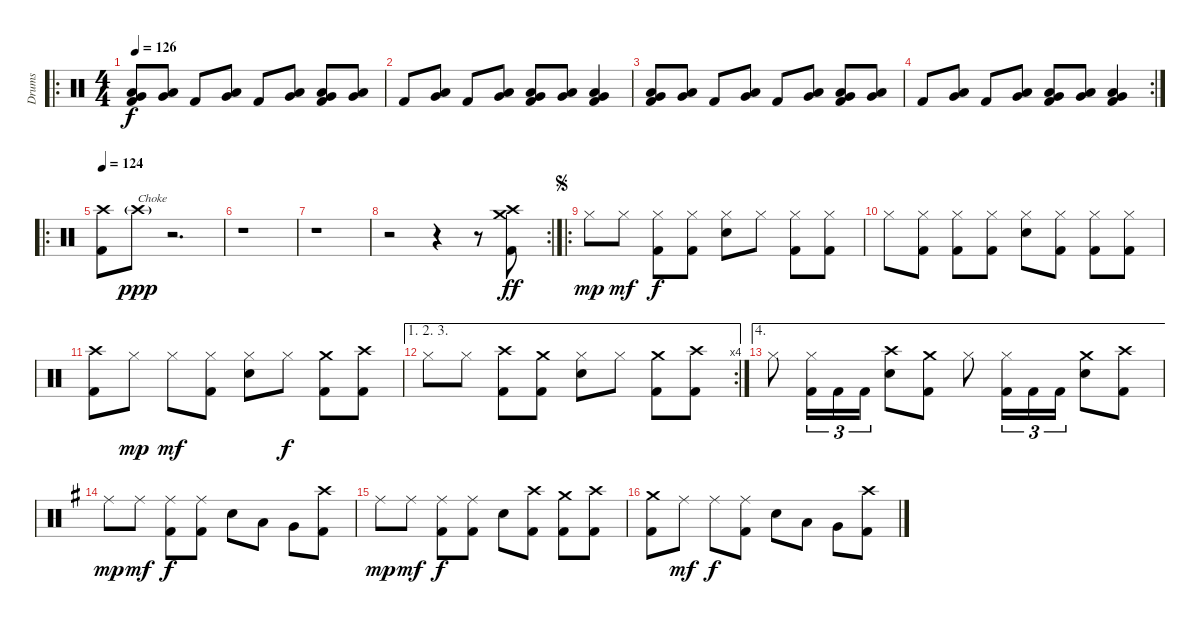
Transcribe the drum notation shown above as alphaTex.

\track ("Drums" "Drums") {instrument percussion}
\staff {score}
\articulation defaults
\ro
\ts (4 4)
\tempo 126
\clef neutral
\ks c
("Low Tom (hit)" "Very Low Tom (hit)" "Kick (hit) 2").8{dy f} ("Low Tom (hit)" "Very Low Tom (hit)").8 "Kick (hit) 2".8 ("Low Tom (hit)" "Very Low Tom (hit)").8 "Kick (hit) 2".8 ("Low Tom (hit)" "Very Low Tom (hit)").8 ("Very Low Tom (hit)" "Low Floor Tom (hit)" "Kick (hit) 2").8 ("Very Low Tom (hit)" "Low Floor Tom (hit)").8 |
"Kick (hit) 2".8 ("Very Low Tom (hit)" "Low Floor Tom (hit)").8 "Kick (hit) 2".8 ("Very Low Tom (hit)" "Low Floor Tom (hit)").8 ("Low Tom (hit)" "Very Low Tom (hit)" "Kick (hit) 2").8 ("Low Tom (hit)" "Very Low Tom (hit)").8 ("Very Low Tom (hit)" "Low Floor Tom (hit)" "Kick (hit) 2").4 |
("Low Tom (hit)" "Very Low Tom (hit)" "Kick (hit) 2").8 ("Low Tom (hit)" "Very Low Tom (hit)").8 "Kick (hit) 2".8 ("Low Tom (hit)" "Very Low Tom (hit)").8 "Kick (hit) 2".8 ("Low Tom (hit)" "Very Low Tom (hit)").8 ("Very Low Tom (hit)" "Low Floor Tom (hit)" "Kick (hit) 2").8 ("Very Low Tom (hit)" "Low Floor Tom (hit)").8 |
\rc 2 "Kick (hit) 2".8
("Very Low Tom (hit)" "Low Floor Tom (hit)").8 "Kick (hit) 2".8 ("Very Low Tom (hit)" "Low Floor Tom (hit)").8 ("Low Tom (hit)" "Very Low Tom (hit)" "Kick (hit) 2").8 ("Low Tom (hit)" "Very Low Tom (hit)").8 ("Very Low Tom (hit)" "Low Floor Tom (hit)" "Kick (hit) 2").4 |
\ro
\tempo 124
("Crash high (hit)" "Kick (hit) 2").8 "Crash high (hit)"{g}.8{txt "Choke" dy ppp volume 0} r.2{d} |
r.1 |
r.1 |
\rc 2
r.2 r.4 r.8 ("Crash high (hit)" "Crash medium (hit)" "Kick (hit) 2").8{dy ff volume 16} |
\ro
\jump segno "Hi-Hat (closed)".8{dy mp} "Hi-Hat (closed)".8{dy mf}
("Hi-Hat (closed)" "Kick (hit) 2").8{dy f} ("Hi-Hat (closed)" "Kick (hit) 2").8 ("Hi-Hat (closed)" "Snare (hit) 2").8 "Hi-Hat (closed)".8 ("Hi-Hat (closed)" "Kick (hit) 2").8 ("Hi-Hat (closed)" "Kick (hit) 2").8 |
"Hi-Hat (closed)".8 ("Hi-Hat (closed)" "Kick (hit) 2").8 ("Hi-Hat (closed)" "Kick (hit) 2").8 ("Hi-Hat (closed)" "Kick (hit) 2").8 ("Hi-Hat (closed)" "Snare (hit) 2").8 ("Hi-Hat (closed)" "Kick (hit) 2").8 ("Hi-Hat (closed)" "Kick (hit) 2").8 ("Hi-Hat (closed)" "Kick (hit) 2").8 |
("Crash high (hit)" "Kick (hit) 2").8 "Hi-Hat (closed)".8{dy mp} "Hi-Hat (closed)".8{dy mf} ("Hi-Hat (closed)" "Kick (hit) 2").8 ("Hi-Hat (closed)" "Snare (hit) 2").8 "Hi-Hat (closed)".8{dy f} ("Crash medium (hit)" "Kick (hit) 2").8 ("Crash high (hit)" "Kick (hit) 2").8 |
\ae (1 2 3)
\rc 4 "Hi-Hat (closed)".8 "Hi-Hat (closed)".8
("Crash high (hit)" "Kick (hit) 2").8 ("Crash medium (hit)" "Kick (hit) 2").8 ("Hi-Hat (closed)" "Snare (hit) 2").8 "Hi-Hat (closed)".8 ("Crash medium (hit)" "Kick (hit) 2").8 ("Crash high (hit)" "Kick (hit) 2").8 |
\ae 4 "Hi-Hat (closed)".8
("Hi-Hat (closed)" "Kick (hit) 2").16{tu (3 2)} "Kick (hit) 2".16{tu (3 2)} "Kick (hit) 2".16{tu (3 2)} ("Crash high (hit)" "Snare (hit) 2").8 ("Crash medium (hit)" "Kick (hit) 2").8 "Hi-Hat (closed)".8 ("Hi-Hat (closed)" "Kick (hit) 2").16{tu (3 2)} "Kick (hit) 2".16{tu (3 2)} "Kick (hit) 2".16{tu (3 2)} ("Crash medium (hit)" "Snare (hit) 2").8 ("Crash high (hit)" "Kick (hit) 2").8 |
\ks g "Ride (middle)".8{dy mp} "Ride (middle)".8{dy mf}
("Ride (middle)" "Kick (hit) 2").8{dy f} ("Ride (middle)" "Kick (hit) 2").8 "Snare (hit) 2".8 "Low Tom (hit)".8 "Very Low Tom (hit)".8 ("Crash high (hit)" "Kick (hit) 2").8 |
"Ride (middle)".8{dy mp} "Ride (middle)".8{dy mf} ("Ride (middle)" "Kick (hit) 2").8{dy f} ("Ride (middle)" "Kick (hit) 2").8 "Snare (hit) 2".8 ("Crash high (hit)" "Kick (hit) 2").8 ("Crash medium (hit)" "Kick (hit) 2").8 ("Crash high (hit)" "Kick (hit) 2").8 |
("Crash medium (hit)" "Kick (hit) 2").8 "Ride (middle)".8{dy mf} "Ride (middle)".8{dy f} ("Ride (middle)" "Kick (hit) 2").8 "Snare (hit) 2".8 "Low Tom (hit)".8 "Very Low Tom (hit)".8 ("Crash high (hit)" "Kick (hit) 2").8
